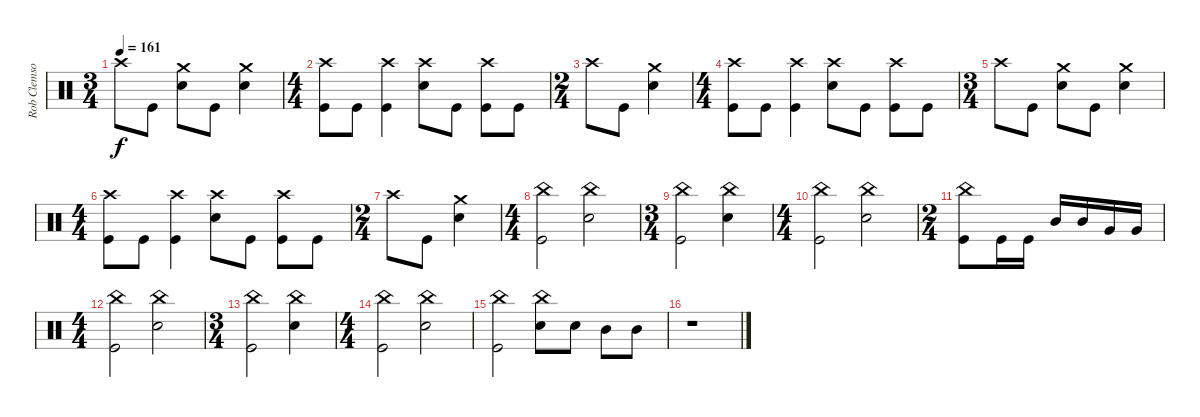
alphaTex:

\track ("Rob Clemson (Drums)" "Rob Clemso") {instrument percussion}
\staff {score}
\articulation defaults
\ts (3 4)
\tempo 161
\clef neutral
\ks c "Crash high (hit)".8{dy f} "Kick (hit)".8
("Electric Snare (hit)" "Crash medium (hit)").8 "Kick (hit)".8 ("Electric Snare (hit)" "Crash medium (hit)").4 |
\ts (4 4)
("Crash high (hit)" "Kick (hit)").8 "Kick (hit)".8 ("Crash high (hit)" "Kick (hit)").4 ("Crash high (hit)" "Electric Snare (hit)").8 "Kick (hit)".8 ("Kick (hit)" "Crash high (hit)").8 "Kick (hit)".8 |
\ts (2 4)
"Crash high (hit)".8 "Kick (hit)".8 ("Electric Snare (hit)" "Crash medium (hit)").4 |
\ts (4 4)
("Crash high (hit)" "Kick (hit)").8 "Kick (hit)".8 ("Crash high (hit)" "Kick (hit)").4 ("Crash high (hit)" "Electric Snare (hit)").8 "Kick (hit)".8 ("Kick (hit)" "Crash high (hit)").8 "Kick (hit)".8 |
\ts (3 4)
"Crash high (hit)".8 "Kick (hit)".8 ("Electric Snare (hit)" "Crash medium (hit)").8 "Kick (hit)".8 ("Electric Snare (hit)" "Crash medium (hit)").4 |
\ts (4 4)
("Crash high (hit)" "Kick (hit)").8 "Kick (hit)".8 ("Crash high (hit)" "Kick (hit)").4 ("Crash high (hit)" "Electric Snare (hit)").8 "Kick (hit)".8 ("Kick (hit)" "Crash high (hit)").8 "Kick (hit)".8 |
\ts (2 4)
"Crash high (hit)".8 "Kick (hit)".8 ("Electric Snare (hit)" "Crash medium (hit)").4 |
\ts (4 4)
("China (hit)" "Kick (hit)").2 ("China (hit)" "Electric Snare (hit)").2 |
\ts (3 4)
("China (hit)" "Kick (hit)").2 ("China (hit)" "Electric Snare (hit)").4 |
\ts (4 4)
("Kick (hit)" "China (hit)").2 ("China (hit)" "Electric Snare (hit)").2 |
\ts (2 4)
("China (hit)" "Kick (hit)").8 "Kick (hit)".16 "Kick (hit)".16 "Mid Tom (hit)".16 "Mid Tom (hit)".16 "Very Low Tom (hit)".16 "Very Low Tom (hit)".16 |
\ts (4 4)
("China (hit)" "Kick (hit)").2 ("China (hit)" "Electric Snare (hit)").2 |
\ts (3 4)
("China (hit)" "Kick (hit)").2 ("China (hit)" "Electric Snare (hit)").4 |
\ts (4 4)
("Kick (hit)" "China (hit)").2 ("China (hit)" "Electric Snare (hit)").2 |
("Kick (hit)" "China (hit)").2 ("China (hit)" "Electric Snare (hit)").8 "Electric Snare (hit)".8 "Mid Tom (hit)".8 "Mid Tom (hit)".8 |
r.1
